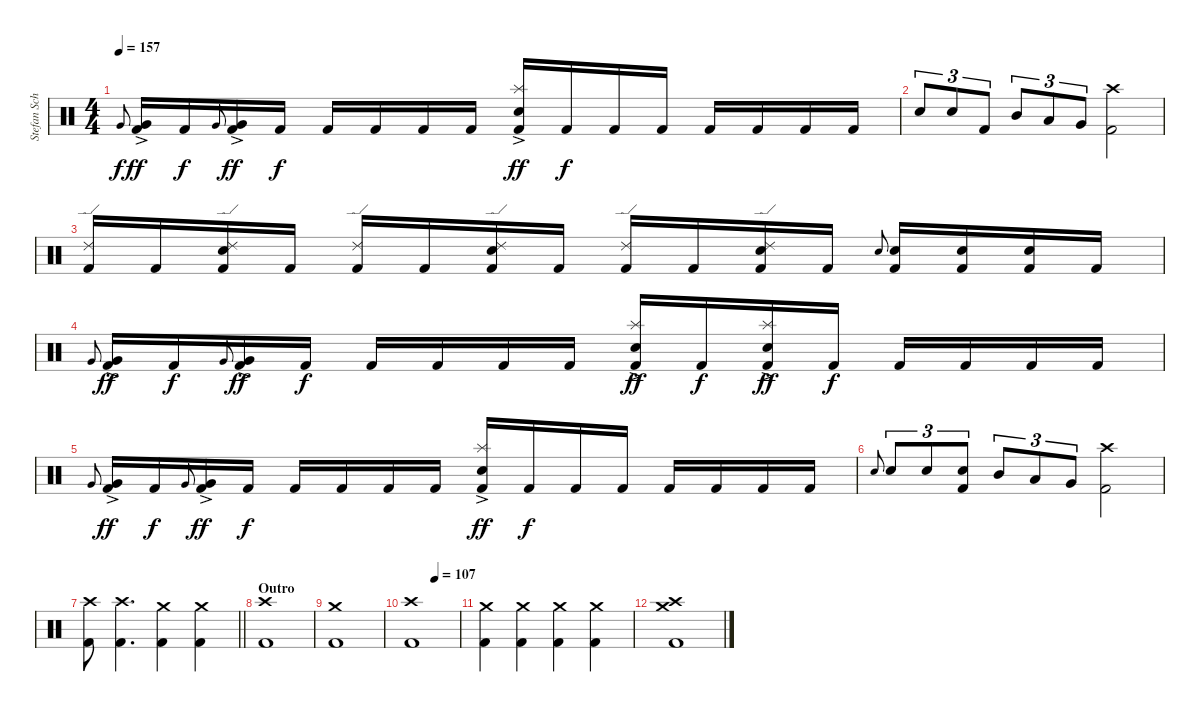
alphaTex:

\track ("Stefan Schwarzmann" "Stefan Sch") {instrument percussion}
\staff {score}
\articulation defaults
\ts (4 4)
\tempo 157
\clef neutral
\ks c "Very Low Tom (hit)".8{gr onbeat dy f}
("Very Low Tom (hit)"{ac} "Kick (hit) 2").16{dy ff} "Kick (hit) 2".16{dy f} "Very Low Tom (hit)".8{gr onbeat} ("Very Low Tom (hit)"{ac} "Kick (hit) 2").16{dy ff} "Kick (hit) 2".16{dy f} "Kick (hit) 2".16 "Kick (hit) 2".16 "Kick (hit) 2".16 "Kick (hit) 2".16 ("Splash (hit)"{ac} "Snare (hit) 2" "Kick (hit) 2").16{dy ff} "Kick (hit) 2".16{dy f} "Kick (hit) 2".16 "Kick (hit) 2".16 "Kick (hit) 2".16 "Kick (hit) 2".16 "Kick (hit) 2".16 "Kick (hit) 2".16 |
"Snare (hit) 2".8{tu (3 2)} "Snare (hit) 2".8{tu (3 2)} "Kick (hit) 2".8{tu (3 2)} "Mid Tom (hit)".8{tu (3 2)} "Low Tom (hit)".8{tu (3 2)} "Very Low Tom (hit)".8{tu (3 2)} ("Crash high (hit)" "Kick (hit) 2").2 |
("Ride (edge) 2" "Kick (hit) 2").16 "Kick (hit) 2".16 ("Ride (edge) 2" "Snare (hit) 2" "Kick (hit) 2").16 "Kick (hit) 2".16 ("Ride (edge) 2" "Kick (hit) 2").16 "Kick (hit) 2".16 ("Ride (edge) 2" "Snare (hit) 2" "Kick (hit) 2").16 "Kick (hit) 2".16 ("Ride (edge) 2" "Kick (hit) 2").16 "Kick (hit) 2".16 ("Ride (edge) 2" "Snare (hit) 2" "Kick (hit) 2").16 "Kick (hit) 2".16 "Snare (hit) 2".8{gr onbeat} ("Snare (hit) 2" "Kick (hit) 2").16 ("Snare (hit) 2" "Kick (hit) 2").16 ("Snare (hit) 2" "Kick (hit) 2").16 "Kick (hit) 2".16 |
"Very Low Tom (hit)".8{gr onbeat} ("Very Low Tom (hit)"{ac} "Kick (hit) 2").16{dy ff} "Kick (hit) 2".16{dy f} "Very Low Tom (hit)".8{gr onbeat} ("Very Low Tom (hit)"{ac} "Kick (hit) 2").16{dy ff} "Kick (hit) 2".16{dy f} "Kick (hit) 2".16 "Kick (hit) 2".16 "Kick (hit) 2".16 "Kick (hit) 2".16 ("Splash (hit)"{ac} "Snare (hit) 2" "Kick (hit) 2").16{dy ff} "Kick (hit) 2".16{dy f} ("Splash (hit)"{ac} "Snare (hit) 2" "Kick (hit) 2").16{dy ff} "Kick (hit) 2".16{dy f} "Kick (hit) 2".16 "Kick (hit) 2".16 "Kick (hit) 2".16 "Kick (hit) 2".16 |
"Very Low Tom (hit)".8{gr onbeat} ("Very Low Tom (hit)"{ac} "Kick (hit) 2").16{dy ff} "Kick (hit) 2".16{dy f} "Very Low Tom (hit)".8{gr onbeat} ("Very Low Tom (hit)"{ac} "Kick (hit) 2").16{dy ff} "Kick (hit) 2".16{dy f} "Kick (hit) 2".16 "Kick (hit) 2".16 "Kick (hit) 2".16 "Kick (hit) 2".16 ("Splash (hit)"{ac} "Snare (hit) 2" "Kick (hit) 2").16{dy ff} "Kick (hit) 2".16{dy f} "Kick (hit) 2".16 "Kick (hit) 2".16 "Kick (hit) 2".16 "Kick (hit) 2".16 "Kick (hit) 2".16 "Kick (hit) 2".16 |
"Snare (hit) 2".8{gr onbeat} "Snare (hit) 2".8{tu (3 2)} "Snare (hit) 2".8{tu (3 2)} ("Snare (hit) 2" "Kick (hit) 2").8{tu (3 2)} "Mid Tom (hit)".8{tu (3 2)} "Low Tom (hit)".8{tu (3 2)} "Very Low Tom (hit)".8{tu (3 2)} ("Crash high (hit)" "Kick (hit) 2").2 |
\barLineRight lightlight
("Crash high (hit)" "Kick (hit) 2").8 ("Crash high (hit)" "Kick (hit) 2").4{d} ("Crash medium (hit)" "Kick (hit) 2").4 ("Crash medium (hit)" "Kick (hit) 2").4 |
\section ("" "Outro")
("Crash high (hit)" "Kick (hit) 2").1 |
("Crash medium (hit)" "Kick (hit) 2").1 |
\tempo (107 0.5)
("Crash high (hit)" "Kick (hit) 2").1 |
("Crash medium (hit)" "Kick (hit) 2").4 ("Crash medium (hit)" "Kick (hit) 2").4 ("Crash medium (hit)" "Kick (hit) 2").4 ("Crash medium (hit)" "Kick (hit) 2").4 |
("Crash high (hit)" "Crash medium (hit)" "Kick (hit) 2").1
